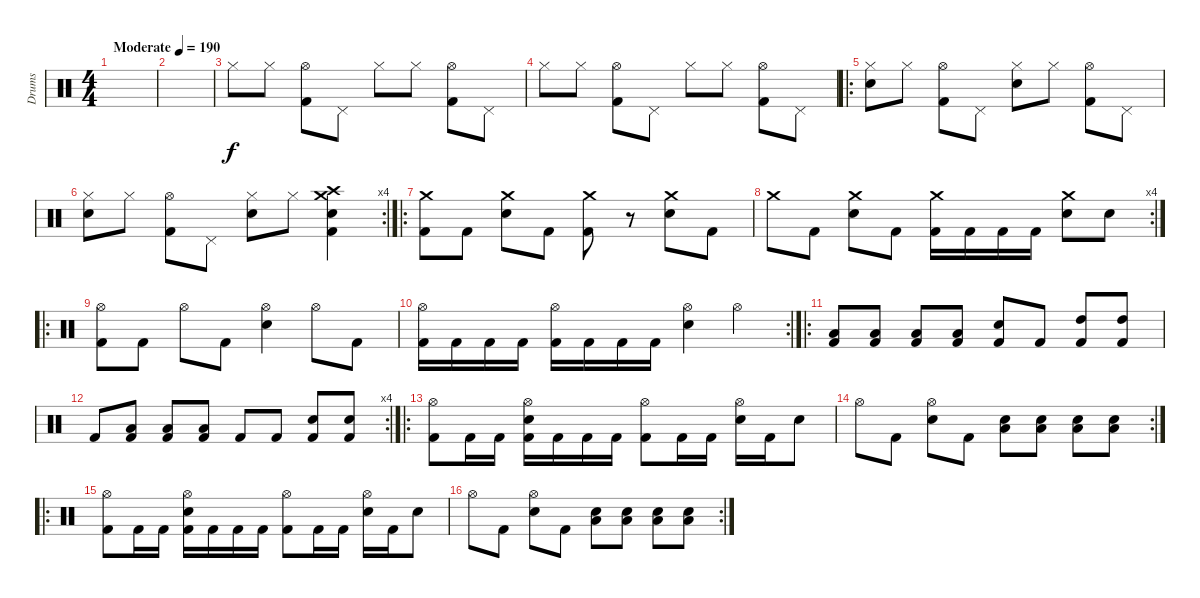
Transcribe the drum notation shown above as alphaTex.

\track ("Drums" "Drums") {instrument percussion}
\staff {score}
\articulation defaults
\ts (4 4)
\tempo (190 "Moderate")
\clef neutral
\ks c
|
|
"Hi-Hat (closed)".8 "Hi-Hat (closed)".8 ("Hi-Hat (open)" "Kick (hit) 2").8 "Pedal Hi-Hat (hit)".8 "Hi-Hat (closed)".8 "Hi-Hat (closed)".8 ("Hi-Hat (open)" "Kick (hit) 2").8 "Pedal Hi-Hat (hit)".8 |
"Hi-Hat (closed)".8 "Hi-Hat (closed)".8 ("Hi-Hat (open)" "Kick (hit) 2").8 "Pedal Hi-Hat (hit)".8 "Hi-Hat (closed)".8 "Hi-Hat (closed)".8 ("Hi-Hat (open)" "Kick (hit) 2").8 "Pedal Hi-Hat (hit)".8 |
\ro
("Hi-Hat (closed)" "Snare (hit) 2").8 "Hi-Hat (closed)".8 ("Hi-Hat (open)" "Kick (hit) 2").8 "Pedal Hi-Hat (hit)".8 ("Hi-Hat (closed)" "Snare (hit) 2").8 "Hi-Hat (closed)".8 ("Hi-Hat (open)" "Kick (hit) 2").8 "Pedal Hi-Hat (hit)".8 |
\rc 4
("Hi-Hat (closed)" "Snare (hit) 2").8 "Hi-Hat (closed)".8 ("Hi-Hat (open)" "Kick (hit) 2").8 "Pedal Hi-Hat (hit)".8 ("Hi-Hat (closed)" "Snare (hit) 2").8 "Hi-Hat (closed)".8 ("Crash medium (hit)" "Crash high (hit)" "Snare (hit) 2" "Kick (hit) 2").4 |
\ro
("Crash medium (hit)" "Kick (hit) 2").8 "Kick (hit) 2".8 ("Crash medium (hit)" "Snare (hit) 2").8 "Kick (hit) 2".8 ("Crash medium (hit)" "Kick (hit) 2").8 r.8 ("Crash medium (hit)" "Snare (hit) 2").8 "Kick (hit) 2".8 |
\rc 4 "Crash medium (hit)".8 "Kick (hit) 2".8
("Crash medium (hit)" "Snare (hit) 2").8 "Kick (hit) 2".8 ("Crash medium (hit)" "Kick (hit) 2").16 "Kick (hit) 2".16 "Kick (hit) 2".16 "Kick (hit) 2".16 ("Crash medium (hit)" "Snare (hit) 2").8 "Snare (hit) 2".8 |
\ro
("Hi-Hat (open)" "Kick (hit) 2").8 "Kick (hit) 2".8 "Hi-Hat (open)".8 "Kick (hit) 2".8 ("Hi-Hat (open)" "Snare (hit) 2").4 "Hi-Hat (open)".8 "Kick (hit) 2".8 |
\rc 2
("Hi-Hat (open)" "Kick (hit) 2").16 "Kick (hit) 2".16 "Kick (hit) 2".16 "Kick (hit) 2".16 ("Hi-Hat (open)" "Kick (hit) 2").16 "Kick (hit) 2".16 "Kick (hit) 2".16 "Kick (hit) 2".16 ("Hi-Hat (open)" "Snare (hit) 2").4 "Hi-Hat (open)".4 |
\ro
("Low Floor Tom (hit)" "Kick (hit) 2").8 ("Low Floor Tom (hit)" "Kick (hit) 2").8 ("Low Floor Tom (hit)" "Kick (hit) 2").8 ("Low Floor Tom (hit)" "Kick (hit) 2").8 ("Snare (hit) 2" "Kick (hit) 2").8 "Kick (hit) 2".8 ("High Tom (hit)" "Kick (hit) 2").8 ("High Tom (hit)" "Kick (hit) 2").8 |
\rc 4 "Kick (hit) 2".8
("Low Tom (hit)" "Kick (hit) 2").8 ("Low Tom (hit)" "Kick (hit) 2").8 ("Low Floor Tom (hit)" "Kick (hit) 2").8 "Kick (hit) 2".8 "Kick (hit) 2".8 ("Snare (hit) 2" "Kick (hit) 2").8 ("Snare (hit) 2" "Kick (hit) 2").8 |
\ro
("Hi-Hat (open)" "Kick (hit) 2").8 "Kick (hit) 2".16 "Kick (hit) 2".16 ("Hi-Hat (open)" "Snare (hit) 2" "Kick (hit) 2").16 "Kick (hit) 2".16 "Kick (hit) 2".16 "Kick (hit) 2".16 ("Hi-Hat (open)" "Kick (hit) 2").8 "Kick (hit) 2".16 "Kick (hit) 2".16 ("Hi-Hat (open)" "Snare (hit) 2").16 "Kick (hit) 2".16 "Snare (hit) 2".8 |
\rc 2 "Hi-Hat (open)".8 "Kick (hit) 2".8
("Hi-Hat (open)" "Snare (hit) 2").8 "Kick (hit) 2".8 ("Snare (hit) 2" "Low Floor Tom (hit)").8 ("Snare (hit) 2" "Low Floor Tom (hit)").8 ("Snare (hit) 2" "Low Floor Tom (hit)").8 ("Snare (hit) 2" "Low Floor Tom (hit)").8 |
\ro
("Hi-Hat (open)" "Kick (hit) 2").8 "Kick (hit) 2".16 "Kick (hit) 2".16 ("Hi-Hat (open)" "Snare (hit) 2" "Kick (hit) 2").16 "Kick (hit) 2".16 "Kick (hit) 2".16 "Kick (hit) 2".16 ("Hi-Hat (open)" "Kick (hit) 2").8 "Kick (hit) 2".16 "Kick (hit) 2".16 ("Hi-Hat (open)" "Snare (hit) 2").16 "Kick (hit) 2".16 "Snare (hit) 2".8 |
\rc 2 "Hi-Hat (open)".8 "Kick (hit) 2".8
("Hi-Hat (open)" "Snare (hit) 2").8 "Kick (hit) 2".8 ("Snare (hit) 2" "Low Floor Tom (hit)").8 ("Snare (hit) 2" "Low Floor Tom (hit)").8 ("Snare (hit) 2" "Low Floor Tom (hit)").8 ("Snare (hit) 2" "Low Floor Tom (hit)").8
